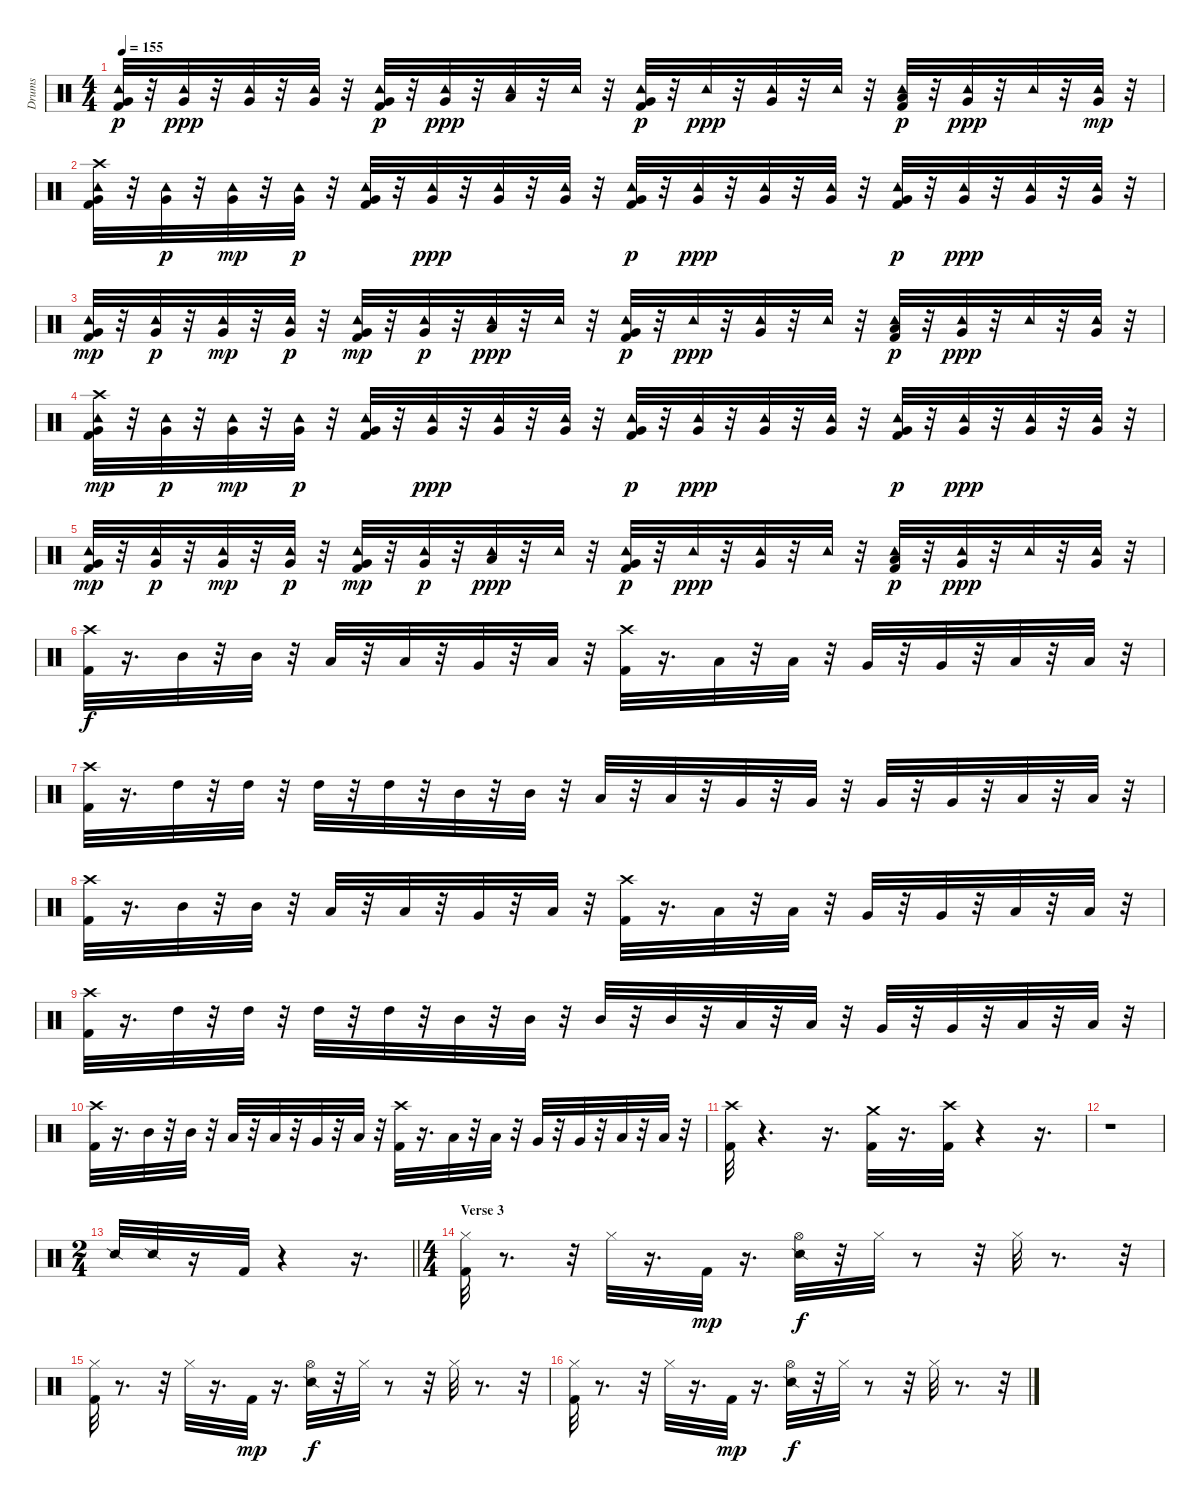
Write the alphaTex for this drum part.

\track ("Drums" "Drums") {instrument percussion}
\staff {score}
\articulation defaults
\ts (4 4)
\tempo 155
\clef neutral
\ks c
("Very Low Tom (hit)" "Kick (hit) 2" "Tambourine (hit)").32{dy p} r.32 ("Very Low Tom (hit)" "Tambourine (hit)").32{dy ppp} r.32 ("Very Low Tom (hit)" "Tambourine (hit)").32 r.32 ("Very Low Tom (hit)" "Tambourine (hit)").32 r.32 ("Kick (hit) 2" "Very Low Tom (hit)" "Tambourine (hit)").32{dy p} r.32 ("Very Low Tom (hit)" "Tambourine (hit)").32{dy ppp} r.32 ("Low Tom (hit)" "Tambourine (hit)").32 r.32 "Tambourine (hit)".32 r.32 ("Kick (hit) 2" "Very Low Tom (hit)" "Tambourine (hit)").32{dy p} r.32 "Tambourine (hit)".32{dy ppp} r.32 ("Very Low Tom (hit)" "Tambourine (hit)").32 r.32 "Tambourine (hit)".32 r.32 ("Kick (hit) 2" "Low Tom (hit)" "Tambourine (hit)").32{dy p} r.32 ("Very Low Tom (hit)" "Tambourine (hit)").32{dy ppp} r.32 "Tambourine (hit)".32 r.32 ("Tambourine (hit)" "Very Low Tom (hit)").32{dy mp} r.32 |
("Kick (hit) 2" "Crash high (hit)" "Tambourine (hit)" "Very Low Tom (hit)").32 r.32 ("Tambourine (hit)" "Very Low Tom (hit)").32{dy p} r.32 ("Tambourine (hit)" "Very Low Tom (hit)").32{dy mp} r.32 ("Tambourine (hit)" "Very Low Tom (hit)").32{dy p} r.32 ("Kick (hit) 2" "Very Low Tom (hit)" "Tambourine (hit)").32 r.32 ("Very Low Tom (hit)" "Tambourine (hit)").32{dy ppp} r.32 ("Very Low Tom (hit)" "Tambourine (hit)").32 r.32 ("Very Low Tom (hit)" "Tambourine (hit)").32 r.32 ("Kick (hit) 2" "Very Low Tom (hit)" "Tambourine (hit)").32{dy p} r.32 ("Very Low Tom (hit)" "Tambourine (hit)").32{dy ppp} r.32 ("Very Low Tom (hit)" "Tambourine (hit)").32 r.32 ("Very Low Tom (hit)" "Tambourine (hit)").32 r.32 ("Very Low Tom (hit)" "Kick (hit) 2" "Tambourine (hit)").32{dy p} r.32 ("Very Low Tom (hit)" "Tambourine (hit)").32{dy ppp} r.32 ("Very Low Tom (hit)" "Tambourine (hit)").32 r.32 ("Very Low Tom (hit)" "Tambourine (hit)").32 r.32 |
("Tambourine (hit)" "Very Low Tom (hit)" "Kick (hit) 2").32{dy mp} r.32 ("Tambourine (hit)" "Very Low Tom (hit)").32{dy p} r.32 ("Tambourine (hit)" "Very Low Tom (hit)").32{dy mp} r.32 ("Tambourine (hit)" "Very Low Tom (hit)").32{dy p} r.32 ("Tambourine (hit)" "Kick (hit) 2" "Very Low Tom (hit)").32{dy mp} r.32 ("Tambourine (hit)" "Very Low Tom (hit)").32{dy p} r.32 ("Low Tom (hit)" "Tambourine (hit)").32{dy ppp} r.32 "Tambourine (hit)".32 r.32 ("Kick (hit) 2" "Very Low Tom (hit)" "Tambourine (hit)").32{dy p} r.32 "Tambourine (hit)".32{dy ppp} r.32 ("Very Low Tom (hit)" "Tambourine (hit)").32 r.32 "Tambourine (hit)".32 r.32 ("Kick (hit) 2" "Low Tom (hit)" "Tambourine (hit)").32{dy p} r.32 ("Very Low Tom (hit)" "Tambourine (hit)").32{dy ppp} r.32 "Tambourine (hit)".32 r.32 ("Very Low Tom (hit)" "Tambourine (hit)").32 r.32 |
("Kick (hit) 2" "Crash high (hit)" "Tambourine (hit)" "Very Low Tom (hit)").32{dy mp} r.32 ("Tambourine (hit)" "Very Low Tom (hit)").32{dy p} r.32 ("Tambourine (hit)" "Very Low Tom (hit)").32{dy mp} r.32 ("Tambourine (hit)" "Very Low Tom (hit)").32{dy p} r.32 ("Kick (hit) 2" "Very Low Tom (hit)" "Tambourine (hit)").32 r.32 ("Very Low Tom (hit)" "Tambourine (hit)").32{dy ppp} r.32 ("Very Low Tom (hit)" "Tambourine (hit)").32 r.32 ("Very Low Tom (hit)" "Tambourine (hit)").32 r.32 ("Kick (hit) 2" "Very Low Tom (hit)" "Tambourine (hit)").32{dy p} r.32 ("Very Low Tom (hit)" "Tambourine (hit)").32{dy ppp} r.32 ("Very Low Tom (hit)" "Tambourine (hit)").32 r.32 ("Very Low Tom (hit)" "Tambourine (hit)").32 r.32 ("Very Low Tom (hit)" "Kick (hit) 2" "Tambourine (hit)").32{dy p} r.32 ("Very Low Tom (hit)" "Tambourine (hit)").32{dy ppp} r.32 ("Very Low Tom (hit)" "Tambourine (hit)").32 r.32 ("Very Low Tom (hit)" "Tambourine (hit)").32 r.32 |
("Tambourine (hit)" "Very Low Tom (hit)" "Kick (hit) 2").32{dy mp} r.32 ("Tambourine (hit)" "Very Low Tom (hit)").32{dy p} r.32 ("Tambourine (hit)" "Very Low Tom (hit)").32{dy mp} r.32 ("Tambourine (hit)" "Very Low Tom (hit)").32{dy p} r.32 ("Tambourine (hit)" "Kick (hit) 2" "Very Low Tom (hit)").32{dy mp} r.32 ("Tambourine (hit)" "Very Low Tom (hit)").32{dy p} r.32 ("Low Tom (hit)" "Tambourine (hit)").32{dy ppp} r.32 "Tambourine (hit)".32 r.32 ("Kick (hit) 2" "Very Low Tom (hit)" "Tambourine (hit)").32{dy p} r.32 "Tambourine (hit)".32{dy ppp} r.32 ("Very Low Tom (hit)" "Tambourine (hit)").32 r.32 "Tambourine (hit)".32 r.32 ("Kick (hit) 2" "Low Tom (hit)" "Tambourine (hit)").32{dy p} r.32 ("Very Low Tom (hit)" "Tambourine (hit)").32{dy ppp} r.32 "Tambourine (hit)".32 r.32 ("Very Low Tom (hit)" "Tambourine (hit)").32 r.32 |
("Kick (hit) 2" "Crash high (hit)").32{dy f} r.16{d} "Mid Tom (hit)".32 r.32 "Mid Tom (hit)".32 r.32 "Low Tom (hit)".32 r.32 "Low Tom (hit)".32 r.32 "Very Low Tom (hit)".32 r.32 "Low Floor Tom (hit)".32 r.32 ("Kick (hit) 2" "Crash high (hit)").32 r.16{d} "Low Tom (hit)".32 r.32 "Low Tom (hit)".32 r.32 "Very Low Tom (hit)".32 r.32 "Very Low Tom (hit)".32 r.32 "Low Floor Tom (hit)".32 r.32 "Low Floor Tom (hit)".32 r.32 |
("Kick (hit) 2" "Crash high (hit)").32 r.16{d} "High Tom (hit)".32 r.32 "High Tom (hit)".32 r.32 "High Tom (hit)".32 r.32 "High Tom (hit)".32 r.32 "Mid Tom (hit)".32 r.32 "Mid Tom (hit)".32 r.32 "Low Tom (hit)".32 r.32 "Low Tom (hit)".32 r.32 "Very Low Tom (hit)".32 r.32 "Very Low Tom (hit)".32 r.32 "Very Low Tom (hit)".32 r.32 "Very Low Tom (hit)".32 r.32 "Low Floor Tom (hit)".32 r.32 "Low Floor Tom (hit)".32 r.32 |
("Kick (hit) 2" "Crash high (hit)").32 r.16{d} "Mid Tom (hit)".32 r.32 "Mid Tom (hit)".32 r.32 "Low Tom (hit)".32 r.32 "Low Tom (hit)".32 r.32 "Very Low Tom (hit)".32 r.32 "Low Floor Tom (hit)".32 r.32 ("Kick (hit) 2" "Crash high (hit)").32 r.16{d} "Low Tom (hit)".32 r.32 "Low Tom (hit)".32 r.32 "Very Low Tom (hit)".32 r.32 "Very Low Tom (hit)".32 r.32 "Low Floor Tom (hit)".32 r.32 "Low Floor Tom (hit)".32 r.32 |
("Kick (hit) 2" "Crash high (hit)").32 r.16{d} "High Tom (hit)".32 r.32 "High Tom (hit)".32 r.32 "High Tom (hit)".32 r.32 "High Tom (hit)".32 r.32 "Mid Tom (hit)".32 r.32 "Mid Tom (hit)".32 r.32 "Mid Tom (hit)".32 r.32 "Mid Tom (hit)".32 r.32 "Low Tom (hit)".32 r.32 "Low Tom (hit)".32 r.32 "Very Low Tom (hit)".32 r.32 "Very Low Tom (hit)".32 r.32 "Low Floor Tom (hit)".32 r.32 "Low Floor Tom (hit)".32 r.32 |
("Kick (hit) 2" "Crash high (hit)").32 r.16{d} "Mid Tom (hit)".32 r.32 "Mid Tom (hit)".32 r.32 "Low Tom (hit)".32 r.32 "Low Tom (hit)".32 r.32 "Very Low Tom (hit)".32 r.32 "Low Floor Tom (hit)".32 r.32 ("Kick (hit) 2" "Crash high (hit)").32 r.16{d} "Low Tom (hit)".32 r.32 "Low Tom (hit)".32 r.32 "Very Low Tom (hit)".32 r.32 "Very Low Tom (hit)".32 r.32 "Low Floor Tom (hit)".32 r.32 "Low Floor Tom (hit)".32 r.32 |
("Kick (hit) 2" "Crash high (hit)").32 r.4{d} r.16{d} ("Kick (hit) 2" "Crash medium (hit)").32 r.16{d} ("Crash high (hit)" "Kick (hit) 2").32 r.4 r.16{d} |
r.1 |
\ts (2 4)
\barLineRight lightlight "Snare (side stick) 2".32 "Snare (side stick) 2".32
r.16 "Kick (hit) 2".32 r.4 r.16{d} |
\ts (4 4)
\section ("" "Verse 3")
("Hi-Hat (closed)" "Kick (hit) 2").32 r.8{d} r.32 "Hi-Hat (closed)".32 r.16{d} "Kick (hit) 2".32{dy mp} r.16{d} ("Hi-Hat (open)" "Snare (side stick) 2").32{dy f} r.32 "Hi-Hat (closed)".32 r.8 r.32 "Hi-Hat (closed)".32 r.8{d} r.32 |
("Hi-Hat (closed)" "Kick (hit) 2").32 r.8{d} r.32 "Hi-Hat (closed)".32 r.16{d} "Kick (hit) 2".32{dy mp} r.16{d} ("Hi-Hat (open)" "Snare (side stick) 2").32{dy f} r.32 "Hi-Hat (closed)".32 r.8 r.32 "Hi-Hat (closed)".32 r.8{d} r.32 |
("Hi-Hat (closed)" "Kick (hit) 2").32 r.8{d} r.32 "Hi-Hat (closed)".32 r.16{d} "Kick (hit) 2".32{dy mp} r.16{d} ("Hi-Hat (open)" "Snare (side stick) 2").32{dy f} r.32 "Hi-Hat (closed)".32 r.8 r.32 "Hi-Hat (closed)".32 r.8{d} r.32
